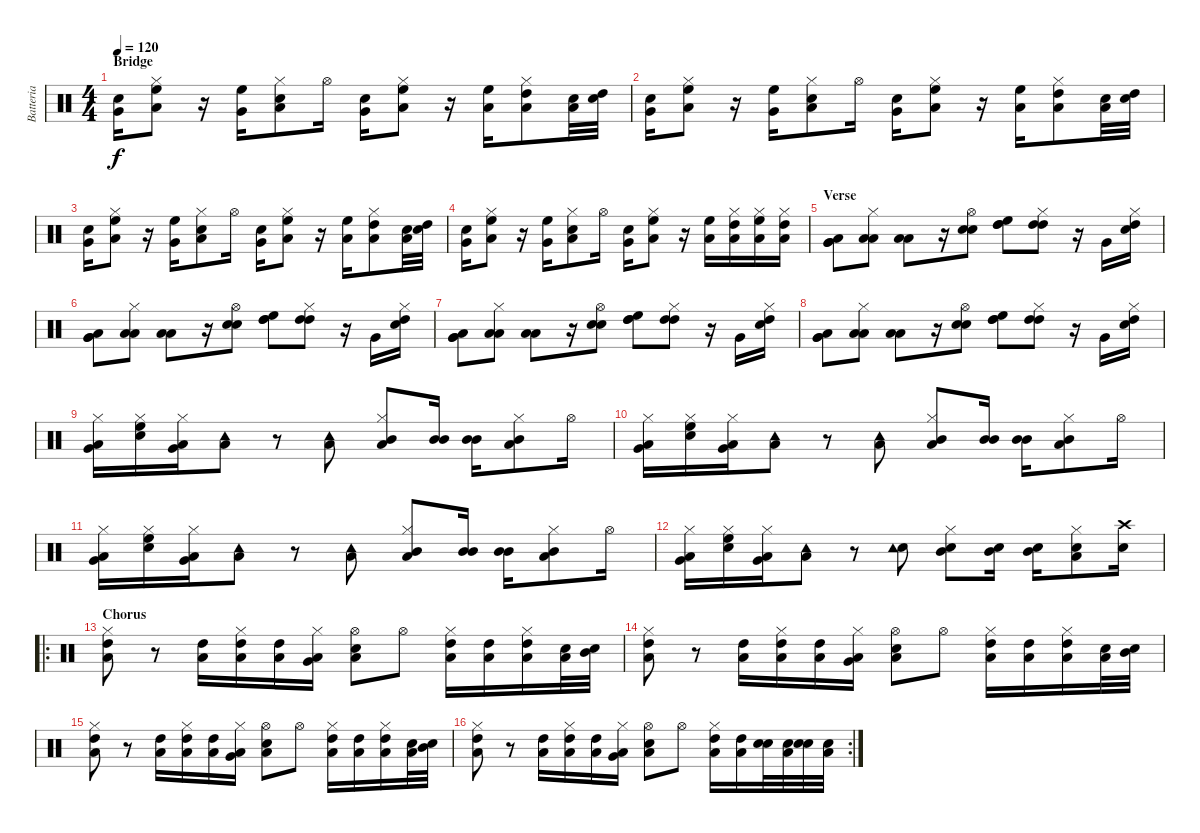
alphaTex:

\track ("Batteria" "Batteria") {instrument percussion}
\staff {score}
\articulation defaults
\ts (4 4)
\section ("" "Bridge")
\tempo 120
\clef neutral
\ks c
("Electric Snare (hit)" "Very Low Tom (hit)").16{dy f volume 10} ("High Floor Tom (hit)" "Low Tom (hit)" "Hi-Hat (closed)").8 r.16 ("High Floor Tom (hit)" "Very Low Tom (hit)").16 ("Electric Snare (hit)" "Low Tom (hit)" "Hi-Hat (closed)").8 "Hi-Hat (open)".16 ("Electric Snare (hit)" "Very Low Tom (hit)").16 ("High Floor Tom (hit)" "Low Tom (hit)" "Hi-Hat (closed)").8 r.16 ("Low Tom (hit)" "High Floor Tom (hit)").16 ("Low Tom (hit)" "High Tom (hit)" "Hi-Hat (closed)").8 ("Electric Snare (hit)" "Low Tom (hit)").32 ("Electric Snare (hit)" "High Tom (hit)").32 |
("Electric Snare (hit)" "Very Low Tom (hit)").16 ("High Floor Tom (hit)" "Low Tom (hit)" "Hi-Hat (closed)").8 r.16 ("High Floor Tom (hit)" "Very Low Tom (hit)").16 ("Electric Snare (hit)" "Low Tom (hit)" "Hi-Hat (closed)").8 "Hi-Hat (open)".16 ("Electric Snare (hit)" "Very Low Tom (hit)").16 ("High Floor Tom (hit)" "Low Tom (hit)" "Hi-Hat (closed)").8 r.16 ("Low Tom (hit)" "High Floor Tom (hit)").16 ("Low Tom (hit)" "High Tom (hit)" "Hi-Hat (closed)").8 ("Electric Snare (hit)" "Low Tom (hit)").32 ("Electric Snare (hit)" "High Tom (hit)").32 |
("Electric Snare (hit)" "Very Low Tom (hit)").16 ("High Floor Tom (hit)" "Low Tom (hit)" "Hi-Hat (closed)").8 r.16 ("High Floor Tom (hit)" "Very Low Tom (hit)").16 ("Electric Snare (hit)" "Low Tom (hit)" "Hi-Hat (closed)").8 "Hi-Hat (open)".16 ("Electric Snare (hit)" "Very Low Tom (hit)").16 ("High Floor Tom (hit)" "Low Tom (hit)" "Hi-Hat (closed)").8 r.16 ("Low Tom (hit)" "High Floor Tom (hit)").16 ("Low Tom (hit)" "High Tom (hit)" "Hi-Hat (closed)").8 ("Electric Snare (hit)" "Low Tom (hit)").32 ("Electric Snare (hit)" "High Tom (hit)").32 |
("Electric Snare (hit)" "Very Low Tom (hit)").16 ("High Floor Tom (hit)" "Low Tom (hit)" "Hi-Hat (closed)").8 r.16 ("High Floor Tom (hit)" "Very Low Tom (hit)").16 ("Electric Snare (hit)" "Low Tom (hit)" "Hi-Hat (closed)").8 "Hi-Hat (open)".16 ("Electric Snare (hit)" "Very Low Tom (hit)").16 ("High Floor Tom (hit)" "Low Tom (hit)" "Hi-Hat (closed)").8 r.16 ("Low Tom (hit)" "High Floor Tom (hit)").16 ("Low Tom (hit)" "High Tom (hit)" "Hi-Hat (closed)").16 ("Low Tom (hit)" "High Floor Tom (hit)" "Hi-Hat (closed)").16 ("Low Tom (hit)" "High Tom (hit)" "Hi-Hat (closed)").16 |
\section ("" "Verse")
("Very Low Tom (hit)" "Low Tom (hit)" "Very Low Tom (hit)").8 ("Low Tom (hit)" "Hi-Hat (closed)" "Low Tom (hit)").8 ("Low Tom (hit)" "Low Tom (hit)").8 r.16 ("Electric Snare (hit)" "Hi-Hat (open)" "Electric Snare (hit)").8 ("High Tom (hit)" "High Floor Tom (hit)" "High Tom (hit)").8 ("High Tom (hit)" "Hi-Hat (closed)" "High Tom (hit)").8 r.16 "Very Low Tom (hit)".16 ("High Tom (hit)" "Hi-Hat (closed)" "Electric Snare (hit)").16 |
("Very Low Tom (hit)" "Low Tom (hit)" "Very Low Tom (hit)").8 ("Low Tom (hit)" "Hi-Hat (closed)" "Low Tom (hit)").8 ("Low Tom (hit)" "Low Tom (hit)").8 r.16 ("Electric Snare (hit)" "Hi-Hat (open)" "Electric Snare (hit)").8 ("High Tom (hit)" "High Floor Tom (hit)" "High Tom (hit)").8 ("High Tom (hit)" "Hi-Hat (closed)" "High Tom (hit)").8 r.16 "Very Low Tom (hit)".16 ("High Tom (hit)" "Hi-Hat (closed)" "Electric Snare (hit)").16 |
("Very Low Tom (hit)" "Low Tom (hit)" "Very Low Tom (hit)").8 ("Low Tom (hit)" "Hi-Hat (closed)" "Low Tom (hit)").8 ("Low Tom (hit)" "Low Tom (hit)").8 r.16 ("Electric Snare (hit)" "Hi-Hat (open)" "Electric Snare (hit)").8 ("High Tom (hit)" "High Floor Tom (hit)" "High Tom (hit)").8 ("High Tom (hit)" "Hi-Hat (closed)" "High Tom (hit)").8 r.16 "Very Low Tom (hit)".16 ("High Tom (hit)" "Hi-Hat (closed)" "Electric Snare (hit)").16 |
("Very Low Tom (hit)" "Low Tom (hit)" "Very Low Tom (hit)").8 ("Low Tom (hit)" "Hi-Hat (closed)" "Low Tom (hit)").8 ("Low Tom (hit)" "Low Tom (hit)").8 r.16 ("Electric Snare (hit)" "Hi-Hat (open)" "Electric Snare (hit)").8 ("High Tom (hit)" "High Floor Tom (hit)" "High Tom (hit)").8 ("High Tom (hit)" "Hi-Hat (closed)" "High Tom (hit)").8 r.16 "Very Low Tom (hit)".16 ("High Tom (hit)" "Hi-Hat (closed)" "Electric Snare (hit)").16 |
("Very Low Tom (hit)" "Low Tom (hit)" "Hi-Hat (closed)").16 ("Electric Snare (hit)" "High Floor Tom (hit)" "Hi-Hat (closed)").16 ("Very Low Tom (hit)" "Low Tom (hit)" "Hi-Hat (closed)").16 ("Low Tom (hit)" "Tambourine (hit)").8 r.8 ("Low Tom (hit)" "Tambourine (hit)").8 ("Low Tom (hit)" "Mid Tom (hit)" "Hi-Hat (closed)").8 ("Mid Tom (hit)" "Mid Tom (hit)").16 ("Mid Tom (hit)" "Mid Tom (hit)").16 ("Mid Tom (hit)" "Low Tom (hit)" "Hi-Hat (closed)").8 "Hi-Hat (open)".16 |
("Very Low Tom (hit)" "Low Tom (hit)" "Hi-Hat (closed)").16 ("Electric Snare (hit)" "High Floor Tom (hit)" "Hi-Hat (closed)").16 ("Very Low Tom (hit)" "Low Tom (hit)" "Hi-Hat (closed)").16 ("Low Tom (hit)" "Tambourine (hit)").8 r.8 ("Low Tom (hit)" "Tambourine (hit)").8 ("Low Tom (hit)" "Mid Tom (hit)" "Hi-Hat (closed)").8 ("Mid Tom (hit)" "Mid Tom (hit)").16 ("Mid Tom (hit)" "Mid Tom (hit)").16 ("Mid Tom (hit)" "Low Tom (hit)" "Hi-Hat (closed)").8 "Hi-Hat (open)".16 |
("Very Low Tom (hit)" "Low Tom (hit)" "Hi-Hat (closed)").16 ("Electric Snare (hit)" "High Floor Tom (hit)" "Hi-Hat (closed)").16 ("Very Low Tom (hit)" "Low Tom (hit)" "Hi-Hat (closed)").16 ("Low Tom (hit)" "Tambourine (hit)").8 r.8 ("Low Tom (hit)" "Tambourine (hit)").8 ("Low Tom (hit)" "Mid Tom (hit)" "Hi-Hat (closed)").8 ("Mid Tom (hit)" "Mid Tom (hit)").16 ("Mid Tom (hit)" "Mid Tom (hit)").16 ("Mid Tom (hit)" "Low Tom (hit)" "Hi-Hat (closed)").8 "Hi-Hat (open)".16 |
("Very Low Tom (hit)" "Low Tom (hit)" "Hi-Hat (closed)").16 ("Electric Snare (hit)" "High Floor Tom (hit)" "Hi-Hat (closed)").16 ("Very Low Tom (hit)" "Low Tom (hit)" "Hi-Hat (closed)").16 ("Low Tom (hit)" "Tambourine (hit)").8 r.8 ("Electric Snare (hit)" "Tambourine (hit)").8 ("Electric Snare (hit)" "Mid Tom (hit)" "Hi-Hat (closed)").8 ("Electric Snare (hit)" "Mid Tom (hit)").16 ("Electric Snare (hit)" "Mid Tom (hit)").16 ("Electric Snare (hit)" "Low Tom (hit)" "Hi-Hat (closed)").8 ("Electric Snare (hit)" "Crash high (hit)").16 |
\ro
\section ("" "Chorus")
("Low Tom (hit)" "High Tom (hit)" "Hi-Hat (closed)").8 r.8 ("Low Tom (hit)" "High Tom (hit)").16 ("Low Tom (hit)" "High Tom (hit)" "Hi-Hat (closed)").16 ("Low Tom (hit)" "High Tom (hit)").16 ("Very Low Tom (hit)" "Low Tom (hit)" "Hi-Hat (closed)").16 ("Low Tom (hit)" "Electric Snare (hit)" "Hi-Hat (open)").8 "Hi-Hat (open)".8 ("Low Tom (hit)" "High Tom (hit)" "Hi-Hat (closed)").16 ("Low Tom (hit)" "High Tom (hit)").16 ("Low Tom (hit)" "High Tom (hit)" "Hi-Hat (closed)").16 ("Electric Snare (hit)" "Low Tom (hit)").32 ("Electric Snare (hit)" "Mid Tom (hit)").32 |
("Low Tom (hit)" "High Tom (hit)" "Hi-Hat (closed)").8 r.8 ("Low Tom (hit)" "High Tom (hit)").16 ("Low Tom (hit)" "High Tom (hit)" "Hi-Hat (closed)").16 ("Low Tom (hit)" "High Tom (hit)").16 ("Very Low Tom (hit)" "Low Tom (hit)" "Hi-Hat (closed)").16 ("Low Tom (hit)" "Electric Snare (hit)" "Hi-Hat (open)").8 "Hi-Hat (open)".8 ("Low Tom (hit)" "High Tom (hit)" "Hi-Hat (closed)").16 ("Low Tom (hit)" "High Tom (hit)").16 ("Low Tom (hit)" "High Tom (hit)" "Hi-Hat (closed)").16 ("Electric Snare (hit)" "Low Tom (hit)").32 ("Electric Snare (hit)" "Mid Tom (hit)").32 |
("Low Tom (hit)" "High Tom (hit)" "Hi-Hat (closed)").8 r.8 ("Low Tom (hit)" "High Tom (hit)").16 ("Low Tom (hit)" "High Tom (hit)" "Hi-Hat (closed)").16 ("Low Tom (hit)" "High Tom (hit)").16 ("Very Low Tom (hit)" "Low Tom (hit)" "Hi-Hat (closed)").16 ("Low Tom (hit)" "Electric Snare (hit)" "Hi-Hat (open)").8 "Hi-Hat (open)".8 ("Low Tom (hit)" "High Tom (hit)" "Hi-Hat (closed)").16 ("Low Tom (hit)" "High Tom (hit)").16 ("Low Tom (hit)" "High Tom (hit)" "Hi-Hat (closed)").16 ("Electric Snare (hit)" "Low Tom (hit)").32 ("Electric Snare (hit)" "Mid Tom (hit)").32 |
\rc 2
("Low Tom (hit)" "High Tom (hit)" "Hi-Hat (closed)").8 r.8 ("Low Tom (hit)" "High Tom (hit)").16 ("Low Tom (hit)" "High Tom (hit)" "Hi-Hat (closed)").16 ("Low Tom (hit)" "High Tom (hit)").16 ("Very Low Tom (hit)" "Low Tom (hit)" "Hi-Hat (closed)").16 ("Low Tom (hit)" "Electric Snare (hit)" "Hi-Hat (open)").8 "Hi-Hat (open)".8 ("Low Tom (hit)" "High Tom (hit)" "Hi-Hat (closed)").16 ("Low Tom (hit)" "High Tom (hit)").16 ("Electric Snare (hit)" "Electric Snare (hit)").32 ("Electric Snare (hit)" "Low Tom (hit)").32 ("Electric Snare (hit)" "Electric Snare (hit)").32 ("Electric Snare (hit)" "Low Tom (hit)").32
